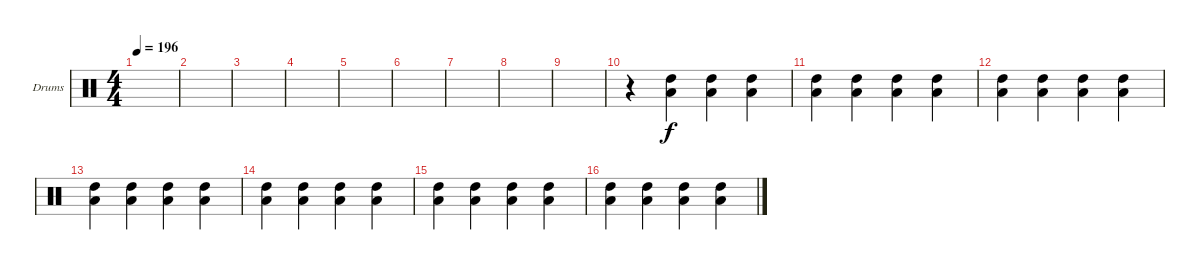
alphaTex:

\defaultSystemsLayout 4
\bracketExtendMode groupsimilarinstruments
\firstSystemTrackNameOrientation horizontal
\otherSystemsTrackNameOrientation horizontal
\track ("Lars Ulrich (Drum)" "Drums") {instrument percussion}
\staff {score}
\articulation defaults
\ts (4 4)
\tempo 196
\clef neutral
\scale
0.474178
\ks c
|
\scale
0.262911 |
\scale
0.262911 |
\scale
0.333333 |
\scale
0.333333 |
\scale
0.333333 |
\scale
0.333333 |
\scale
0.333333 |
\scale
0.333333 |
\scale
0.333333 r.4 ("High Tom (hit)" "Low Tom (hit)").4 ("High Tom (hit)" "Low Tom (hit)").4 ("High Tom (hit)" "Low Tom (hit)").4 |
\scale
0.333333 ("High Tom (hit)" "Low Tom (hit)").4 ("High Tom (hit)" "Low Tom (hit)").4 ("High Tom (hit)" "Low Tom (hit)").4 ("High Tom (hit)" "Low Tom (hit)").4 |
\scale
0.333333 ("High Tom (hit)" "Low Tom (hit)").4 ("High Tom (hit)" "Low Tom (hit)").4 ("High Tom (hit)" "Low Tom (hit)").4 ("High Tom (hit)" "Low Tom (hit)").4 |
\scale
0.333333 ("High Tom (hit)" "Low Tom (hit)").4 ("High Tom (hit)" "Low Tom (hit)").4 ("High Tom (hit)" "Low Tom (hit)").4 ("High Tom (hit)" "Low Tom (hit)").4 |
\scale
0.333333 ("High Tom (hit)" "Low Tom (hit)").4 ("High Tom (hit)" "Low Tom (hit)").4 ("High Tom (hit)" "Low Tom (hit)").4 ("High Tom (hit)" "Low Tom (hit)").4 |
\scale
0.333333 ("High Tom (hit)" "Low Tom (hit)").4 ("High Tom (hit)" "Low Tom (hit)").4 ("High Tom (hit)" "Low Tom (hit)").4 ("High Tom (hit)" "Low Tom (hit)").4 |
\scale
0.333333 ("High Tom (hit)" "Low Tom (hit)").4 ("High Tom (hit)" "Low Tom (hit)").4 ("High Tom (hit)" "Low Tom (hit)").4 ("High Tom (hit)" "Low Tom (hit)").4
